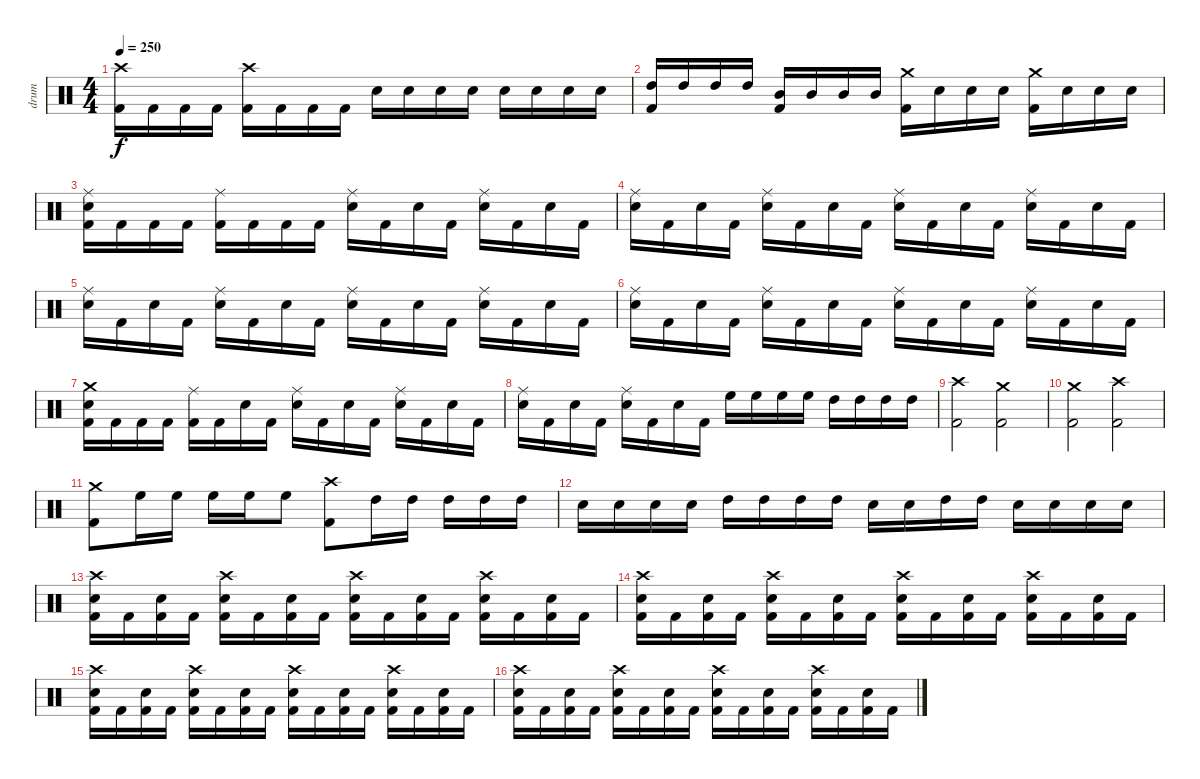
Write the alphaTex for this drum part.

\track ("drum" "drum") {instrument percussion}
\staff {score}
\articulation defaults
\ts (4 4)
\tempo 250
\clef neutral
\ks c
("Crash high (hit)" "Kick (hit) 2").16{dy f} "Kick (hit) 2".16 "Kick (hit) 2".16 "Kick (hit) 2".16 ("Crash high (hit)" "Kick (hit) 2").16 "Kick (hit) 2".16 "Kick (hit) 2".16 "Kick (hit) 2".16 "Snare (hit) 2".16 "Snare (hit) 2".16 "Snare (hit) 2".16 "Snare (hit) 2".16 "Snare (hit) 2".16 "Snare (hit) 2".16 "Snare (hit) 2".16 "Snare (hit) 2".16 |
("Kick (hit) 2" "High Tom (hit)").16 "High Tom (hit)".16 "High Tom (hit)".16 "High Tom (hit)".16 ("Kick (hit) 2" "Mid Tom (hit)").16 "Mid Tom (hit)".16 "Mid Tom (hit)".16 "Mid Tom (hit)".16 ("Kick (hit) 2" "Crash medium (hit)").16 "Snare (hit) 2".16 "Snare (hit) 2".16 "Snare (hit) 2".16 ("Kick (hit) 2" "Crash medium (hit)").16 "Snare (hit) 2".16 "Snare (hit) 2".16 "Snare (hit) 2".16 |
("Ride (middle)" "Snare (hit) 2" "Kick (hit) 2").16 "Kick (hit) 2".16 "Kick (hit) 2".16 "Kick (hit) 2".16 ("Ride (middle)" "Kick (hit) 2").16 "Kick (hit) 2".16 "Kick (hit) 2".16 "Kick (hit) 2".16 ("Ride (middle)" "Snare (hit) 2").16 "Kick (hit) 2".16 "Snare (hit) 2".16 "Kick (hit) 2".16 ("Ride (middle)" "Snare (hit) 2").16 "Kick (hit) 2".16 "Snare (hit) 2".16 "Kick (hit) 2".16 |
("Ride (middle)" "Snare (hit) 2").16 "Kick (hit) 2".16 "Snare (hit) 2".16 "Kick (hit) 2".16 ("Ride (middle)" "Snare (hit) 2").16 "Kick (hit) 2".16 "Snare (hit) 2".16 "Kick (hit) 2".16 ("Ride (middle)" "Snare (hit) 2").16 "Kick (hit) 2".16 "Snare (hit) 2".16 "Kick (hit) 2".16 ("Ride (middle)" "Snare (hit) 2").16 "Kick (hit) 2".16 "Snare (hit) 2".16 "Kick (hit) 2".16 |
("Ride (middle)" "Snare (hit) 2").16 "Kick (hit) 2".16 "Snare (hit) 2".16 "Kick (hit) 2".16 ("Ride (middle)" "Snare (hit) 2").16 "Kick (hit) 2".16 "Snare (hit) 2".16 "Kick (hit) 2".16 ("Ride (middle)" "Snare (hit) 2").16 "Kick (hit) 2".16 "Snare (hit) 2".16 "Kick (hit) 2".16 ("Ride (middle)" "Snare (hit) 2").16 "Kick (hit) 2".16 "Snare (hit) 2".16 "Kick (hit) 2".16 |
("Ride (middle)" "Snare (hit) 2").16 "Kick (hit) 2".16 "Snare (hit) 2".16 "Kick (hit) 2".16 ("Ride (middle)" "Snare (hit) 2").16 "Kick (hit) 2".16 "Snare (hit) 2".16 "Kick (hit) 2".16 ("Ride (middle)" "Snare (hit) 2").16 "Kick (hit) 2".16 "Snare (hit) 2".16 "Kick (hit) 2".16 ("Ride (middle)" "Snare (hit) 2").16 "Kick (hit) 2".16 "Snare (hit) 2".16 "Kick (hit) 2".16 |
("Crash medium (hit)" "Snare (hit) 2" "Kick (hit) 2").16 "Kick (hit) 2".16 "Kick (hit) 2".16 "Kick (hit) 2".16 ("Ride (middle)" "Kick (hit) 2").16 "Kick (hit) 2".16 "Snare (hit) 2".16 "Kick (hit) 2".16 ("Ride (middle)" "Snare (hit) 2").16 "Kick (hit) 2".16 "Snare (hit) 2".16 "Kick (hit) 2".16 ("Ride (middle)" "Snare (hit) 2").16 "Kick (hit) 2".16 "Snare (hit) 2".16 "Kick (hit) 2".16 |
("Ride (middle)" "Snare (hit) 2").16 "Kick (hit) 2".16 "Snare (hit) 2".16 "Kick (hit) 2".16 ("Ride (middle)" "Snare (hit) 2").16 "Kick (hit) 2".16 "Snare (hit) 2".16 "Kick (hit) 2".16 "High Floor Tom (hit)".16 "High Floor Tom (hit)".16 "High Floor Tom (hit)".16 "High Floor Tom (hit)".16 "High Tom (hit)".16 "High Tom (hit)".16 "High Tom (hit)".16 "High Tom (hit)".16 |
("Crash high (hit)" "Kick (hit) 2").2 ("Crash medium (hit)" "Kick (hit) 2").2 |
("Crash medium (hit)" "Kick (hit) 2").2 ("Crash high (hit)" "Kick (hit) 2").2 |
("Crash medium (hit)" "Kick (hit) 2").8 "High Floor Tom (hit)".16 "High Floor Tom (hit)".16 "High Floor Tom (hit)".16 "High Floor Tom (hit)".16 "High Floor Tom (hit)".8 ("Crash high (hit)" "Kick (hit) 2").8 "High Tom (hit)".16 "High Tom (hit)".16 "High Tom (hit)".16 "High Tom (hit)".16 "High Tom (hit)".16 |
"Snare (hit) 2".16 "Snare (hit) 2".16 "Snare (hit) 2".16 "Snare (hit) 2".16 "High Tom (hit)".16 "High Tom (hit)".16 "High Tom (hit)".16 "High Tom (hit)".16 "Snare (hit) 2".16 "Snare (hit) 2".16 "High Tom (hit)".16 "High Tom (hit)".16 "Snare (hit) 2".16 "Snare (hit) 2".16 "Snare (hit) 2".16 "Snare (hit) 2".16 |
("Crash high (hit)" "Snare (hit) 2" "Kick (hit) 2").16 "Kick (hit) 2".16 ("Snare (hit) 2" "Kick (hit) 2").16 "Kick (hit) 2".16 ("Crash high (hit)" "Snare (hit) 2" "Kick (hit) 2").16 "Kick (hit) 2".16 ("Snare (hit) 2" "Kick (hit) 2").16 "Kick (hit) 2".16 ("Crash high (hit)" "Snare (hit) 2" "Kick (hit) 2").16 "Kick (hit) 2".16 ("Snare (hit) 2" "Kick (hit) 2").16 "Kick (hit) 2".16 ("Crash high (hit)" "Snare (hit) 2" "Kick (hit) 2").16 "Kick (hit) 2".16 ("Snare (hit) 2" "Kick (hit) 2").16 "Kick (hit) 2".16 |
("Crash high (hit)" "Snare (hit) 2" "Kick (hit) 2").16 "Kick (hit) 2".16 ("Snare (hit) 2" "Kick (hit) 2").16 "Kick (hit) 2".16 ("Crash high (hit)" "Snare (hit) 2" "Kick (hit) 2").16 "Kick (hit) 2".16 ("Snare (hit) 2" "Kick (hit) 2").16 "Kick (hit) 2".16 ("Crash high (hit)" "Snare (hit) 2" "Kick (hit) 2").16 "Kick (hit) 2".16 ("Snare (hit) 2" "Kick (hit) 2").16 "Kick (hit) 2".16 ("Crash high (hit)" "Snare (hit) 2" "Kick (hit) 2").16 "Kick (hit) 2".16 ("Snare (hit) 2" "Kick (hit) 2").16 "Kick (hit) 2".16 |
("Crash high (hit)" "Snare (hit) 2" "Kick (hit) 2").16 "Kick (hit) 2".16 ("Snare (hit) 2" "Kick (hit) 2").16 "Kick (hit) 2".16 ("Crash high (hit)" "Snare (hit) 2" "Kick (hit) 2").16 "Kick (hit) 2".16 ("Snare (hit) 2" "Kick (hit) 2").16 "Kick (hit) 2".16 ("Crash high (hit)" "Snare (hit) 2" "Kick (hit) 2").16 "Kick (hit) 2".16 ("Snare (hit) 2" "Kick (hit) 2").16 "Kick (hit) 2".16 ("Crash high (hit)" "Snare (hit) 2" "Kick (hit) 2").16 "Kick (hit) 2".16 ("Snare (hit) 2" "Kick (hit) 2").16 "Kick (hit) 2".16 |
("Crash high (hit)" "Snare (hit) 2" "Kick (hit) 2").16 "Kick (hit) 2".16 ("Snare (hit) 2" "Kick (hit) 2").16 "Kick (hit) 2".16 ("Crash high (hit)" "Snare (hit) 2" "Kick (hit) 2").16 "Kick (hit) 2".16 ("Snare (hit) 2" "Kick (hit) 2").16 "Kick (hit) 2".16 ("Crash high (hit)" "Snare (hit) 2" "Kick (hit) 2").16 "Kick (hit) 2".16 ("Snare (hit) 2" "Kick (hit) 2").16 "Kick (hit) 2".16 ("Crash high (hit)" "Snare (hit) 2" "Kick (hit) 2").16 "Kick (hit) 2".16 ("Snare (hit) 2" "Kick (hit) 2").16 "Kick (hit) 2".16
